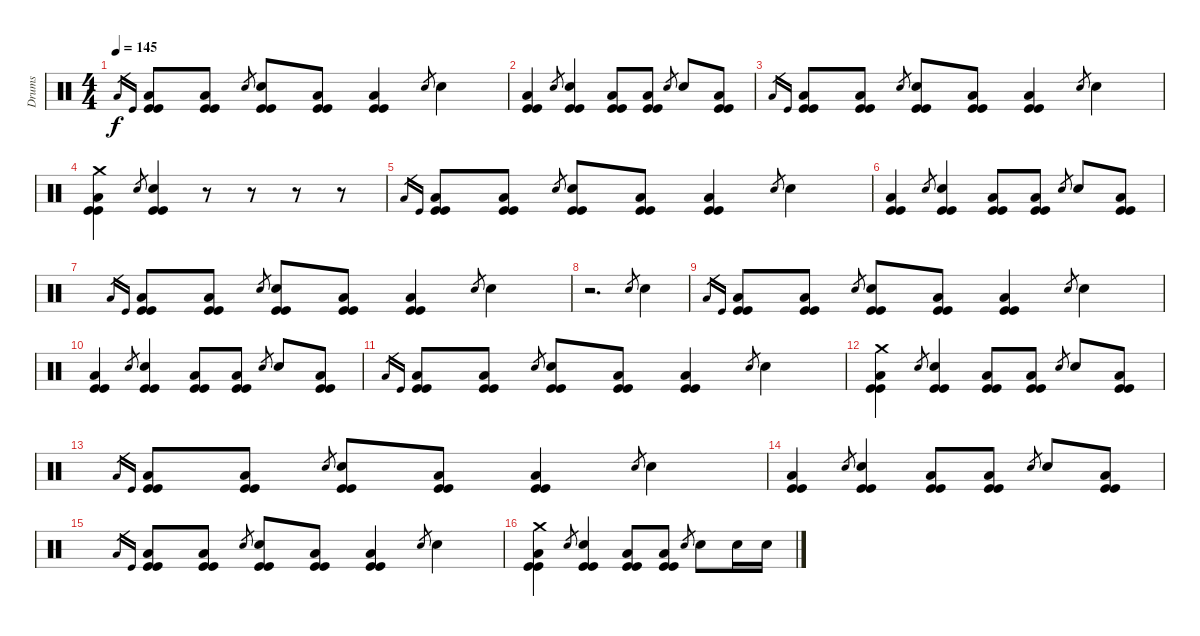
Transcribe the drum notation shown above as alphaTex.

\track ("Drums" "Drums") {instrument percussion}
\staff {score}
\articulation defaults
\ts (4 4)
\tempo 145
\clef neutral
\ks c "Low Floor Tom (hit)".16{gr dy f} "Kick (hit)".16{gr}
("Low Floor Tom (hit)" "Kick (hit)" "Kick (hit)").8 ("Low Floor Tom (hit)" "Kick (hit)" "Kick (hit)").8 "Electric Snare (hit)".8{gr} ("Electric Snare (hit)" "Kick (hit)" "Kick (hit)").8 ("Low Floor Tom (hit)" "Kick (hit)" "Kick (hit)").8 ("Low Floor Tom (hit)" "Kick (hit)" "Kick (hit)").4 "Electric Snare (hit)".8{gr} "Electric Snare (hit)".4 |
("Low Floor Tom (hit)" "Kick (hit)" "Kick (hit)").4 "Electric Snare (hit)".8{gr} ("Electric Snare (hit)" "Kick (hit)" "Kick (hit)").4 ("Low Floor Tom (hit)" "Kick (hit)" "Kick (hit)").8 ("Low Floor Tom (hit)" "Kick (hit)" "Kick (hit)").8 "Electric Snare (hit)".8{gr} "Electric Snare (hit)".8 ("Low Floor Tom (hit)" "Kick (hit)" "Kick (hit)").8 |
"Low Floor Tom (hit)".16{gr} "Kick (hit)".16{gr} ("Low Floor Tom (hit)" "Kick (hit)" "Kick (hit)").8 ("Low Floor Tom (hit)" "Kick (hit)" "Kick (hit)").8 "Electric Snare (hit)".8{gr} ("Electric Snare (hit)" "Kick (hit)" "Kick (hit)").8 ("Low Floor Tom (hit)" "Kick (hit)" "Kick (hit)").8 ("Low Floor Tom (hit)" "Kick (hit)" "Kick (hit)").4 "Electric Snare (hit)".8{gr} "Electric Snare (hit)".4 |
("Crash medium (hit)" "Low Floor Tom (hit)" "Kick (hit)" "Kick (hit)").4 "Electric Snare (hit)".8{gr} ("Electric Snare (hit)" "Kick (hit)" "Kick (hit)").4 r.8 r.8 r.8 r.8 |
"Low Floor Tom (hit)".16{gr} "Kick (hit)".16{gr} ("Low Floor Tom (hit)" "Kick (hit)" "Kick (hit)").8 ("Low Floor Tom (hit)" "Kick (hit)" "Kick (hit)").8 "Electric Snare (hit)".8{gr} ("Electric Snare (hit)" "Kick (hit)" "Kick (hit)").8 ("Low Floor Tom (hit)" "Kick (hit)" "Kick (hit)").8 ("Low Floor Tom (hit)" "Kick (hit)" "Kick (hit)").4 "Electric Snare (hit)".8{gr} "Electric Snare (hit)".4 |
("Low Floor Tom (hit)" "Kick (hit)" "Kick (hit)").4 "Electric Snare (hit)".8{gr} ("Electric Snare (hit)" "Kick (hit)" "Kick (hit)").4 ("Low Floor Tom (hit)" "Kick (hit)" "Kick (hit)").8 ("Low Floor Tom (hit)" "Kick (hit)" "Kick (hit)").8 "Electric Snare (hit)".8{gr} "Electric Snare (hit)".8 ("Low Floor Tom (hit)" "Kick (hit)" "Kick (hit)").8 |
"Low Floor Tom (hit)".16{gr} "Kick (hit)".16{gr} ("Low Floor Tom (hit)" "Kick (hit)" "Kick (hit)").8 ("Low Floor Tom (hit)" "Kick (hit)" "Kick (hit)").8 "Electric Snare (hit)".8{gr} ("Electric Snare (hit)" "Kick (hit)" "Kick (hit)").8 ("Low Floor Tom (hit)" "Kick (hit)" "Kick (hit)").8 ("Low Floor Tom (hit)" "Kick (hit)" "Kick (hit)").4 "Electric Snare (hit)".8{gr} "Electric Snare (hit)".4 |
r.2{d} "Electric Snare (hit)".8{gr} "Electric Snare (hit)".4 |
"Low Floor Tom (hit)".16{gr} "Kick (hit)".16{gr} ("Low Floor Tom (hit)" "Kick (hit)" "Kick (hit)").8 ("Low Floor Tom (hit)" "Kick (hit)" "Kick (hit)").8 "Electric Snare (hit)".8{gr} ("Electric Snare (hit)" "Kick (hit)" "Kick (hit)").8 ("Low Floor Tom (hit)" "Kick (hit)" "Kick (hit)").8 ("Low Floor Tom (hit)" "Kick (hit)" "Kick (hit)").4 "Electric Snare (hit)".8{gr} "Electric Snare (hit)".4 |
("Low Floor Tom (hit)" "Kick (hit)" "Kick (hit)").4 "Electric Snare (hit)".8{gr} ("Electric Snare (hit)" "Kick (hit)" "Kick (hit)").4 ("Low Floor Tom (hit)" "Kick (hit)" "Kick (hit)").8 ("Low Floor Tom (hit)" "Kick (hit)" "Kick (hit)").8 "Electric Snare (hit)".8{gr} "Electric Snare (hit)".8 ("Low Floor Tom (hit)" "Kick (hit)" "Kick (hit)").8 |
"Low Floor Tom (hit)".16{gr} "Kick (hit)".16{gr} ("Low Floor Tom (hit)" "Kick (hit)" "Kick (hit)").8 ("Low Floor Tom (hit)" "Kick (hit)" "Kick (hit)").8 "Electric Snare (hit)".8{gr} ("Electric Snare (hit)" "Kick (hit)" "Kick (hit)").8 ("Low Floor Tom (hit)" "Kick (hit)" "Kick (hit)").8 ("Low Floor Tom (hit)" "Kick (hit)" "Kick (hit)").4 "Electric Snare (hit)".8{gr} "Electric Snare (hit)".4 |
("Crash medium (hit)" "Low Floor Tom (hit)" "Kick (hit)" "Kick (hit)").4 "Electric Snare (hit)".8{gr} ("Electric Snare (hit)" "Kick (hit)" "Kick (hit)").4 ("Low Floor Tom (hit)" "Kick (hit)" "Kick (hit)").8 ("Low Floor Tom (hit)" "Kick (hit)" "Kick (hit)").8 "Electric Snare (hit)".8{gr} "Electric Snare (hit)".8 ("Low Floor Tom (hit)" "Kick (hit)" "Kick (hit)").8 |
"Low Floor Tom (hit)".16{gr} "Kick (hit)".16{gr} ("Low Floor Tom (hit)" "Kick (hit)" "Kick (hit)").8 ("Low Floor Tom (hit)" "Kick (hit)" "Kick (hit)").8 "Electric Snare (hit)".8{gr} ("Electric Snare (hit)" "Kick (hit)" "Kick (hit)").8 ("Low Floor Tom (hit)" "Kick (hit)" "Kick (hit)").8 ("Low Floor Tom (hit)" "Kick (hit)" "Kick (hit)").4 "Electric Snare (hit)".8{gr} "Electric Snare (hit)".4 |
("Low Floor Tom (hit)" "Kick (hit)" "Kick (hit)").4 "Electric Snare (hit)".8{gr} ("Electric Snare (hit)" "Kick (hit)" "Kick (hit)").4 ("Low Floor Tom (hit)" "Kick (hit)" "Kick (hit)").8 ("Low Floor Tom (hit)" "Kick (hit)" "Kick (hit)").8 "Electric Snare (hit)".8{gr} "Electric Snare (hit)".8 ("Low Floor Tom (hit)" "Kick (hit)" "Kick (hit)").8 |
"Low Floor Tom (hit)".16{gr} "Kick (hit)".16{gr} ("Low Floor Tom (hit)" "Kick (hit)" "Kick (hit)").8 ("Low Floor Tom (hit)" "Kick (hit)" "Kick (hit)").8 "Electric Snare (hit)".8{gr} ("Electric Snare (hit)" "Kick (hit)" "Kick (hit)").8 ("Low Floor Tom (hit)" "Kick (hit)" "Kick (hit)").8 ("Low Floor Tom (hit)" "Kick (hit)" "Kick (hit)").4 "Electric Snare (hit)".8{gr} "Electric Snare (hit)".4 |
("Crash medium (hit)" "Low Floor Tom (hit)" "Kick (hit)" "Kick (hit)").4 "Electric Snare (hit)".8{gr} ("Electric Snare (hit)" "Kick (hit)" "Kick (hit)").4 ("Low Floor Tom (hit)" "Kick (hit)" "Kick (hit)").8 ("Low Floor Tom (hit)" "Kick (hit)" "Kick (hit)").8 "Electric Snare (hit)".8{gr} "Electric Snare (hit)".8 "Electric Snare (hit)".16 "Electric Snare (hit)".16
